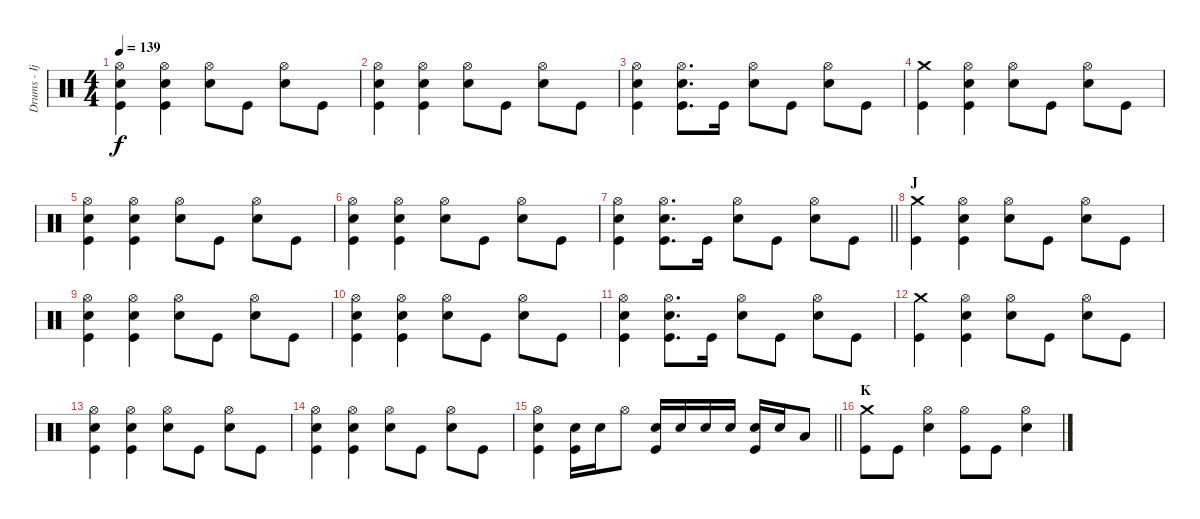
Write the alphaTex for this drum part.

\track ("Drums - Ijichi" "Drums - Ij") {instrument percussion}
\staff {score}
\articulation defaults
\ts (4 4)
\tempo 139
\clef neutral
\ks c
("Hi-Hat (open)" "Electric Snare (hit)" "Kick (hit)").4{dy f} ("Hi-Hat (open)" "Electric Snare (hit)" "Kick (hit)").4 ("Hi-Hat (open)" "Electric Snare (hit)").8 "Kick (hit)".8 ("Hi-Hat (open)" "Electric Snare (hit)").8 "Kick (hit)".8 |
("Hi-Hat (open)" "Electric Snare (hit)" "Kick (hit)").4 ("Hi-Hat (open)" "Electric Snare (hit)" "Kick (hit)").4 ("Hi-Hat (open)" "Electric Snare (hit)").8 "Kick (hit)".8 ("Hi-Hat (open)" "Electric Snare (hit)").8 "Kick (hit)".8 |
("Hi-Hat (open)" "Electric Snare (hit)" "Kick (hit)").4 ("Hi-Hat (open)" "Electric Snare (hit)" "Kick (hit)").8{d} "Kick (hit)".16 ("Hi-Hat (open)" "Electric Snare (hit)").8 "Kick (hit)".8 ("Hi-Hat (open)" "Electric Snare (hit)").8 "Kick (hit)".8 |
("Crash medium (hit)" "Kick (hit)").4 ("Hi-Hat (open)" "Electric Snare (hit)" "Kick (hit)").4 ("Hi-Hat (open)" "Electric Snare (hit)").8 "Kick (hit)".8 ("Hi-Hat (open)" "Electric Snare (hit)").8 "Kick (hit)".8 |
("Hi-Hat (open)" "Electric Snare (hit)" "Kick (hit)").4 ("Hi-Hat (open)" "Electric Snare (hit)" "Kick (hit)").4 ("Hi-Hat (open)" "Electric Snare (hit)").8 "Kick (hit)".8 ("Hi-Hat (open)" "Electric Snare (hit)").8 "Kick (hit)".8 |
("Hi-Hat (open)" "Electric Snare (hit)" "Kick (hit)").4 ("Hi-Hat (open)" "Electric Snare (hit)" "Kick (hit)").4 ("Hi-Hat (open)" "Electric Snare (hit)").8 "Kick (hit)".8 ("Hi-Hat (open)" "Electric Snare (hit)").8 "Kick (hit)".8 |
\barLineRight lightlight
("Hi-Hat (open)" "Electric Snare (hit)" "Kick (hit)").4 ("Hi-Hat (open)" "Electric Snare (hit)" "Kick (hit)").8{d} "Kick (hit)".16 ("Hi-Hat (open)" "Electric Snare (hit)").8 "Kick (hit)".8 ("Hi-Hat (open)" "Electric Snare (hit)").8 "Kick (hit)".8 |
\section ("" "J")
("Crash medium (hit)" "Kick (hit)").4 ("Hi-Hat (open)" "Electric Snare (hit)" "Kick (hit)").4 ("Hi-Hat (open)" "Electric Snare (hit)").8 "Kick (hit)".8 ("Hi-Hat (open)" "Electric Snare (hit)").8 "Kick (hit)".8 |
("Hi-Hat (open)" "Electric Snare (hit)" "Kick (hit)").4 ("Hi-Hat (open)" "Electric Snare (hit)" "Kick (hit)").4 ("Hi-Hat (open)" "Electric Snare (hit)").8 "Kick (hit)".8 ("Hi-Hat (open)" "Electric Snare (hit)").8 "Kick (hit)".8 |
("Hi-Hat (open)" "Electric Snare (hit)" "Kick (hit)").4 ("Hi-Hat (open)" "Electric Snare (hit)" "Kick (hit)").4 ("Hi-Hat (open)" "Electric Snare (hit)").8 "Kick (hit)".8 ("Hi-Hat (open)" "Electric Snare (hit)").8 "Kick (hit)".8 |
("Hi-Hat (open)" "Electric Snare (hit)" "Kick (hit)").4 ("Hi-Hat (open)" "Electric Snare (hit)" "Kick (hit)").8{d} "Kick (hit)".16 ("Hi-Hat (open)" "Electric Snare (hit)").8 "Kick (hit)".8 ("Hi-Hat (open)" "Electric Snare (hit)").8 "Kick (hit)".8 |
("Crash medium (hit)" "Kick (hit)").4 ("Hi-Hat (open)" "Electric Snare (hit)" "Kick (hit)").4 ("Hi-Hat (open)" "Electric Snare (hit)").8 "Kick (hit)".8 ("Hi-Hat (open)" "Electric Snare (hit)").8 "Kick (hit)".8 |
("Hi-Hat (open)" "Electric Snare (hit)" "Kick (hit)").4 ("Hi-Hat (open)" "Electric Snare (hit)" "Kick (hit)").4 ("Hi-Hat (open)" "Electric Snare (hit)").8 "Kick (hit)".8 ("Hi-Hat (open)" "Electric Snare (hit)").8 "Kick (hit)".8 |
("Hi-Hat (open)" "Electric Snare (hit)" "Kick (hit)").4 ("Hi-Hat (open)" "Electric Snare (hit)" "Kick (hit)").4 ("Hi-Hat (open)" "Electric Snare (hit)").8 "Kick (hit)".8 ("Hi-Hat (open)" "Electric Snare (hit)").8 "Kick (hit)".8 |
\barLineRight lightlight
("Hi-Hat (open)" "Electric Snare (hit)" "Kick (hit)").4 ("Electric Snare (hit)" "Kick (hit)").16 "Electric Snare (hit)".16 "Hi-Hat (open)".8 ("Electric Snare (hit)" "Kick (hit)").16 "Electric Snare (hit)".16 "Electric Snare (hit)".16 "Electric Snare (hit)".16 ("Electric Snare (hit)" "Kick (hit)").16 "Electric Snare (hit)".16 "Low Tom (hit)".8 |
\section ("" "K")
("Crash medium (hit)" "Kick (hit)").8 "Kick (hit)".8 ("Hi-Hat (open)" "Electric Snare (hit)").4 ("Hi-Hat (open)" "Kick (hit)").8 "Kick (hit)".8 ("Hi-Hat (open)" "Electric Snare (hit)").4
